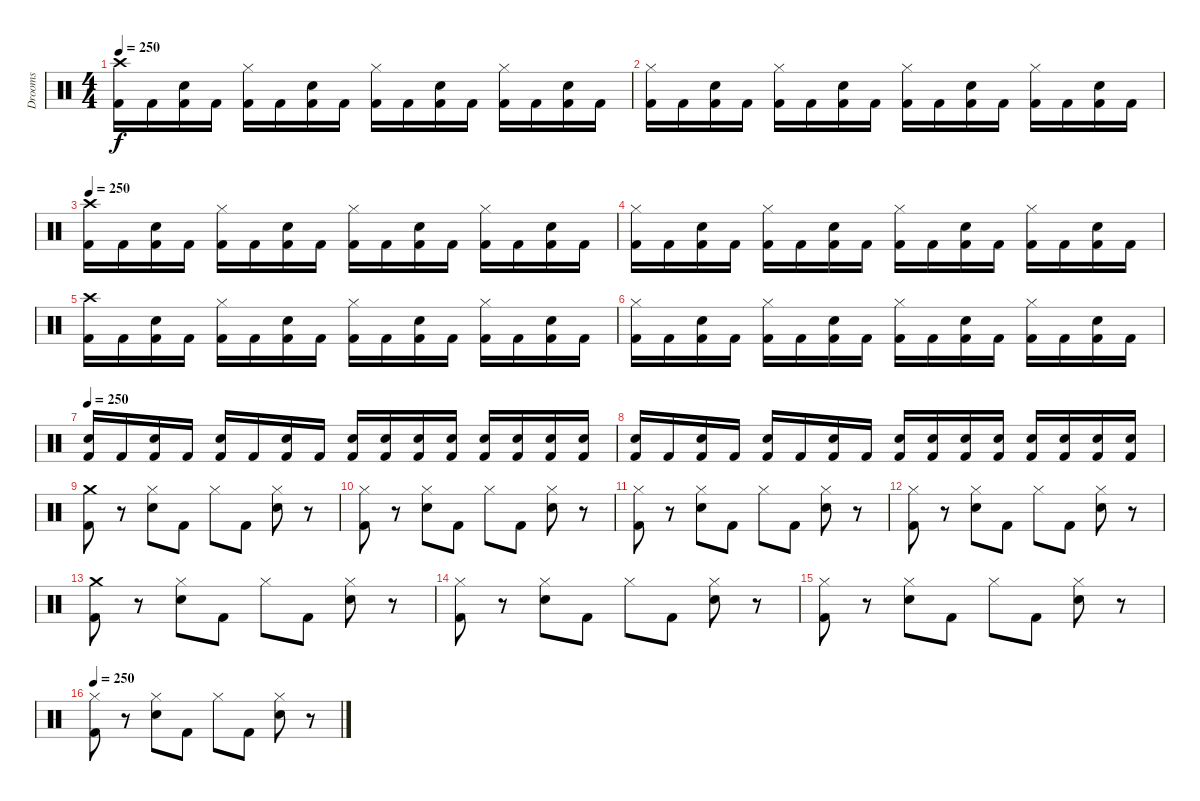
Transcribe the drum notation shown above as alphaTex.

\track ("Drooms" "Drooms") {instrument percussion}
\staff {score}
\articulation defaults
\ts (4 4)
\tempo 250
\clef neutral
\ks c
("Kick (hit) 2" "Crash high (hit)").16{dy f} "Kick (hit) 2".16 ("Kick (hit) 2" "Snare (hit) 2").16 "Kick (hit) 2".16 ("Kick (hit) 2" "Hi-Hat (closed)").16 "Kick (hit) 2".16 ("Kick (hit) 2" "Snare (hit) 2").16 "Kick (hit) 2".16 ("Kick (hit) 2" "Hi-Hat (closed)").16 "Kick (hit) 2".16 ("Kick (hit) 2" "Snare (hit) 2").16 "Kick (hit) 2".16 ("Kick (hit) 2" "Hi-Hat (closed)").16 "Kick (hit) 2".16 ("Kick (hit) 2" "Snare (hit) 2").16 "Kick (hit) 2".16 |
("Hi-Hat (closed)" "Kick (hit) 2").16 "Kick (hit) 2".16 ("Snare (hit) 2" "Kick (hit) 2").16 "Kick (hit) 2".16 ("Hi-Hat (closed)" "Kick (hit) 2").16 "Kick (hit) 2".16 ("Snare (hit) 2" "Kick (hit) 2").16 "Kick (hit) 2".16 ("Hi-Hat (closed)" "Kick (hit) 2").16 "Kick (hit) 2".16 ("Snare (hit) 2" "Kick (hit) 2").16 "Kick (hit) 2".16 ("Hi-Hat (closed)" "Kick (hit) 2").16 "Kick (hit) 2".16 ("Snare (hit) 2" "Kick (hit) 2").16 "Kick (hit) 2".16 |
\tempo 250
("Kick (hit) 2" "Crash high (hit)").16 "Kick (hit) 2".16 ("Kick (hit) 2" "Snare (hit) 2").16 "Kick (hit) 2".16 ("Kick (hit) 2" "Hi-Hat (closed)").16 "Kick (hit) 2".16 ("Kick (hit) 2" "Snare (hit) 2").16 "Kick (hit) 2".16 ("Kick (hit) 2" "Hi-Hat (closed)").16 "Kick (hit) 2".16 ("Kick (hit) 2" "Snare (hit) 2").16 "Kick (hit) 2".16 ("Kick (hit) 2" "Hi-Hat (closed)").16 "Kick (hit) 2".16 ("Kick (hit) 2" "Snare (hit) 2").16 "Kick (hit) 2".16 |
("Hi-Hat (closed)" "Kick (hit) 2").16 "Kick (hit) 2".16 ("Snare (hit) 2" "Kick (hit) 2").16 "Kick (hit) 2".16 ("Hi-Hat (closed)" "Kick (hit) 2").16 "Kick (hit) 2".16 ("Snare (hit) 2" "Kick (hit) 2").16 "Kick (hit) 2".16 ("Hi-Hat (closed)" "Kick (hit) 2").16 "Kick (hit) 2".16 ("Snare (hit) 2" "Kick (hit) 2").16 "Kick (hit) 2".16 ("Hi-Hat (closed)" "Kick (hit) 2").16 "Kick (hit) 2".16 ("Snare (hit) 2" "Kick (hit) 2").16 "Kick (hit) 2".16 |
("Kick (hit) 2" "Crash high (hit)").16 "Kick (hit) 2".16 ("Kick (hit) 2" "Snare (hit) 2").16 "Kick (hit) 2".16 ("Kick (hit) 2" "Hi-Hat (closed)").16 "Kick (hit) 2".16 ("Kick (hit) 2" "Snare (hit) 2").16 "Kick (hit) 2".16 ("Kick (hit) 2" "Hi-Hat (closed)").16 "Kick (hit) 2".16 ("Kick (hit) 2" "Snare (hit) 2").16 "Kick (hit) 2".16 ("Kick (hit) 2" "Hi-Hat (closed)").16 "Kick (hit) 2".16 ("Kick (hit) 2" "Snare (hit) 2").16 "Kick (hit) 2".16 |
("Hi-Hat (closed)" "Kick (hit) 2").16 "Kick (hit) 2".16 ("Snare (hit) 2" "Kick (hit) 2").16 "Kick (hit) 2".16 ("Hi-Hat (closed)" "Kick (hit) 2").16 "Kick (hit) 2".16 ("Snare (hit) 2" "Kick (hit) 2").16 "Kick (hit) 2".16 ("Hi-Hat (closed)" "Kick (hit) 2").16 "Kick (hit) 2".16 ("Snare (hit) 2" "Kick (hit) 2").16 "Kick (hit) 2".16 ("Hi-Hat (closed)" "Kick (hit) 2").16 "Kick (hit) 2".16 ("Snare (hit) 2" "Kick (hit) 2").16 "Kick (hit) 2".16 |
\tempo 250
("Kick (hit) 2" "Snare (hit) 2").16 "Kick (hit) 2".16 ("Kick (hit) 2" "Snare (hit) 2").16 "Kick (hit) 2".16 ("Kick (hit) 2" "Snare (hit) 2").16 "Kick (hit) 2".16 ("Kick (hit) 2" "Snare (hit) 2").16 "Kick (hit) 2".16 ("Kick (hit) 2" "Snare (hit) 2").16 ("Kick (hit) 2" "Snare (hit) 2").16 ("Kick (hit) 2" "Snare (hit) 2").16 ("Kick (hit) 2" "Snare (hit) 2").16 ("Kick (hit) 2" "Snare (hit) 2").16 ("Kick (hit) 2" "Snare (hit) 2").16 ("Kick (hit) 2" "Snare (hit) 2").16 ("Kick (hit) 2" "Snare (hit) 2").16 |
("Kick (hit) 2" "Snare (hit) 2").16 "Kick (hit) 2".16 ("Kick (hit) 2" "Snare (hit) 2").16 "Kick (hit) 2".16 ("Kick (hit) 2" "Snare (hit) 2").16 "Kick (hit) 2".16 ("Kick (hit) 2" "Snare (hit) 2").16 "Kick (hit) 2".16 ("Kick (hit) 2" "Snare (hit) 2").16 ("Kick (hit) 2" "Snare (hit) 2").16 ("Kick (hit) 2" "Snare (hit) 2").16 ("Kick (hit) 2" "Snare (hit) 2").16 ("Kick (hit) 2" "Snare (hit) 2").16 ("Kick (hit) 2" "Snare (hit) 2").16 ("Kick (hit) 2" "Snare (hit) 2").16 ("Kick (hit) 2" "Snare (hit) 2").16 |
("Crash medium (hit)" "Kick (hit) 2").8 r.8 ("Hi-Hat (closed)" "Snare (hit) 2").8 "Kick (hit) 2".8 "Hi-Hat (closed)".8 "Kick (hit) 2".8 ("Hi-Hat (closed)" "Snare (hit) 2").8 r.8 |
("Hi-Hat (closed)" "Kick (hit) 2").8 r.8 ("Hi-Hat (closed)" "Snare (hit) 2").8 "Kick (hit) 2".8 "Hi-Hat (closed)".8 "Kick (hit) 2".8 ("Hi-Hat (closed)" "Snare (hit) 2").8 r.8 |
("Kick (hit) 2" "Hi-Hat (closed)").8 r.8 ("Hi-Hat (closed)" "Snare (hit) 2").8 "Kick (hit) 2".8 "Hi-Hat (closed)".8 "Kick (hit) 2".8 ("Hi-Hat (closed)" "Snare (hit) 2").8 r.8 |
("Hi-Hat (closed)" "Kick (hit) 2").8 r.8 ("Hi-Hat (closed)" "Snare (hit) 2").8 "Kick (hit) 2".8 "Hi-Hat (closed)".8 "Kick (hit) 2".8 ("Hi-Hat (closed)" "Snare (hit) 2").8 r.8 |
("Crash medium (hit)" "Kick (hit) 2").8 r.8 ("Hi-Hat (closed)" "Snare (hit) 2").8 "Kick (hit) 2".8 "Hi-Hat (closed)".8 "Kick (hit) 2".8 ("Hi-Hat (closed)" "Snare (hit) 2").8 r.8 |
("Hi-Hat (closed)" "Kick (hit) 2").8 r.8 ("Hi-Hat (closed)" "Snare (hit) 2").8 "Kick (hit) 2".8 "Hi-Hat (closed)".8 "Kick (hit) 2".8 ("Hi-Hat (closed)" "Snare (hit) 2").8 r.8 |
("Kick (hit) 2" "Hi-Hat (closed)").8 r.8 ("Hi-Hat (closed)" "Snare (hit) 2").8 "Kick (hit) 2".8 "Hi-Hat (closed)".8 "Kick (hit) 2".8 ("Hi-Hat (closed)" "Snare (hit) 2").8 r.8 |
\tempo 250
("Hi-Hat (closed)" "Kick (hit) 2").8 r.8 ("Hi-Hat (closed)" "Snare (hit) 2").8 "Kick (hit) 2".8 "Hi-Hat (closed)".8 "Kick (hit) 2".8 ("Hi-Hat (closed)" "Snare (hit) 2").8 r.8
